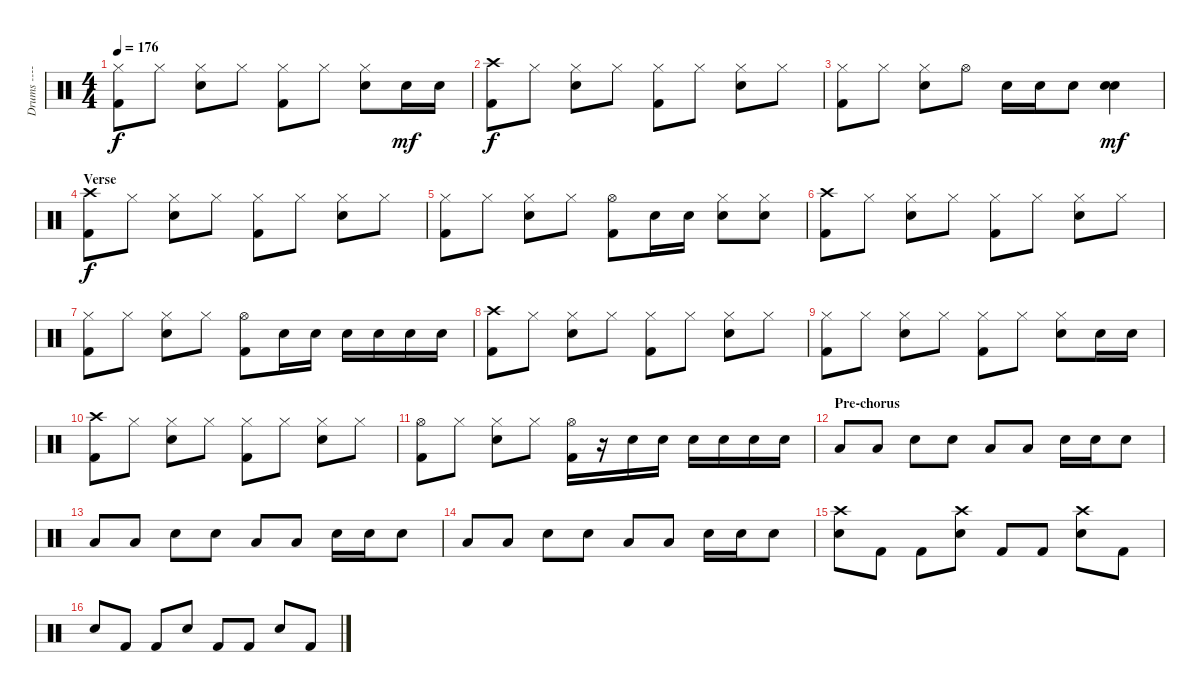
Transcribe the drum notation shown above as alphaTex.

\track ("Drums ----- Larry Mullen Junior" "Drums ----") {instrument percussion}
\staff {score}
\articulation defaults
\ts (4 4)
\tempo 176
\clef neutral
\ks c
("Kick (hit) 2" "Hi-Hat (closed)").8{dy f} "Hi-Hat (closed)".8 ("Electric Snare (hit)" "Hi-Hat (closed)").8 "Hi-Hat (closed)".8 ("Kick (hit) 2" "Hi-Hat (closed)").8 "Hi-Hat (closed)".8 ("Electric Snare (hit)" "Hi-Hat (closed)").8 "Electric Snare (hit)".16{dy mf} "Electric Snare (hit)".16 |
("Kick (hit) 2" "Crash high (hit)").8{dy f} "Hi-Hat (closed)".8 ("Electric Snare (hit)" "Hi-Hat (closed)").8 "Hi-Hat (closed)".8 ("Kick (hit) 2" "Hi-Hat (closed)").8 "Hi-Hat (closed)".8 ("Electric Snare (hit)" "Hi-Hat (closed)").8 "Hi-Hat (closed)".8 |
("Kick (hit) 2" "Hi-Hat (closed)").8 "Hi-Hat (closed)".8 ("Electric Snare (hit)" "Hi-Hat (closed)").8 "Hi-Hat (open)".8 "Electric Snare (hit)".16 "Electric Snare (hit)".16 "Electric Snare (hit)".8 ("Electric Snare (hit)" "Electric Snare (hit)").4{dy mf} |
\section ("" "Verse")
("Kick (hit) 2" "Crash high (hit)").8{dy f} "Hi-Hat (closed)".8 ("Electric Snare (hit)" "Hi-Hat (closed)").8 "Hi-Hat (closed)".8 ("Kick (hit) 2" "Hi-Hat (closed)").8 "Hi-Hat (closed)".8 ("Electric Snare (hit)" "Hi-Hat (closed)").8 "Hi-Hat (closed)".8 |
("Kick (hit) 2" "Hi-Hat (closed)").8 "Hi-Hat (closed)".8 ("Electric Snare (hit)" "Hi-Hat (closed)").8 "Hi-Hat (closed)".8 ("Kick (hit) 2" "Hi-Hat (open)").8 "Electric Snare (hit)".16 "Electric Snare (hit)".16 ("Electric Snare (hit)" "Hi-Hat (closed)").8 ("Electric Snare (hit)" "Hi-Hat (closed)").8 |
("Kick (hit) 2" "Crash high (hit)").8 "Hi-Hat (closed)".8 ("Electric Snare (hit)" "Hi-Hat (closed)").8 "Hi-Hat (closed)".8 ("Kick (hit) 2" "Hi-Hat (closed)").8 "Hi-Hat (closed)".8 ("Electric Snare (hit)" "Hi-Hat (closed)").8 "Hi-Hat (closed)".8 |
("Kick (hit) 2" "Hi-Hat (closed)").8 "Hi-Hat (closed)".8 ("Electric Snare (hit)" "Hi-Hat (closed)").8 "Hi-Hat (closed)".8 ("Kick (hit) 2" "Hi-Hat (open)").8 "Electric Snare (hit)".16 "Electric Snare (hit)".16 "Electric Snare (hit)".16 "Electric Snare (hit)".16 "Electric Snare (hit)".16 "Electric Snare (hit)".16 |
("Kick (hit) 2" "Crash high (hit)").8 "Hi-Hat (closed)".8 ("Electric Snare (hit)" "Hi-Hat (closed)").8 "Hi-Hat (closed)".8 ("Kick (hit) 2" "Hi-Hat (closed)").8 "Hi-Hat (closed)".8 ("Electric Snare (hit)" "Hi-Hat (closed)").8 "Hi-Hat (closed)".8 |
("Kick (hit) 2" "Hi-Hat (closed)").8 "Hi-Hat (closed)".8 ("Electric Snare (hit)" "Hi-Hat (closed)").8 "Hi-Hat (closed)".8 ("Kick (hit) 2" "Hi-Hat (closed)").8 "Hi-Hat (closed)".8 ("Electric Snare (hit)" "Hi-Hat (closed)").8 "Electric Snare (hit)".16 "Electric Snare (hit)".16 |
("Kick (hit) 2" "Crash high (hit)").8 "Hi-Hat (closed)".8 ("Electric Snare (hit)" "Hi-Hat (closed)").8 "Hi-Hat (closed)".8 ("Kick (hit) 2" "Hi-Hat (closed)").8 "Hi-Hat (closed)".8 ("Electric Snare (hit)" "Hi-Hat (closed)").8 "Hi-Hat (closed)".8 |
("Kick (hit) 2" "Hi-Hat (open)").8 "Hi-Hat (closed)".8 ("Electric Snare (hit)" "Hi-Hat (closed)").8 "Hi-Hat (closed)".8 ("Kick (hit) 2" "Hi-Hat (open)").16 r.16 "Electric Snare (hit)".16 "Electric Snare (hit)".16 "Electric Snare (hit)".16 "Electric Snare (hit)".16 "Electric Snare (hit)".16 "Electric Snare (hit)".16 |
\section ("" "Pre-chorus")
"Low Floor Tom (hit)".8 "Low Floor Tom (hit)".8 "Electric Snare (hit)".8 "Electric Snare (hit)".8 "Low Floor Tom (hit)".8 "Low Floor Tom (hit)".8 "Electric Snare (hit)".16 "Electric Snare (hit)".16 "Electric Snare (hit)".8 |
"Low Floor Tom (hit)".8 "Low Floor Tom (hit)".8 "Electric Snare (hit)".8 "Electric Snare (hit)".8 "Low Floor Tom (hit)".8 "Low Floor Tom (hit)".8 "Electric Snare (hit)".16 "Electric Snare (hit)".16 "Electric Snare (hit)".8 |
"Low Floor Tom (hit)".8 "Low Floor Tom (hit)".8 "Electric Snare (hit)".8 "Electric Snare (hit)".8 "Low Floor Tom (hit)".8 "Low Floor Tom (hit)".8 "Electric Snare (hit)".16 "Electric Snare (hit)".16 "Electric Snare (hit)".8 |
("Electric Snare (hit)" "Crash high (hit)").8 "Kick (hit) 2".8 "Kick (hit) 2".8 ("Electric Snare (hit)" "Crash high (hit)").8 "Kick (hit) 2".8 "Kick (hit) 2".8 ("Electric Snare (hit)" "Crash high (hit)").8 "Kick (hit) 2".8 |
"Electric Snare (hit)".8 "Kick (hit) 2".8 "Kick (hit) 2".8 "Electric Snare (hit)".8 "Kick (hit) 2".8 "Kick (hit) 2".8 "Electric Snare (hit)".8 "Kick (hit) 2".8
